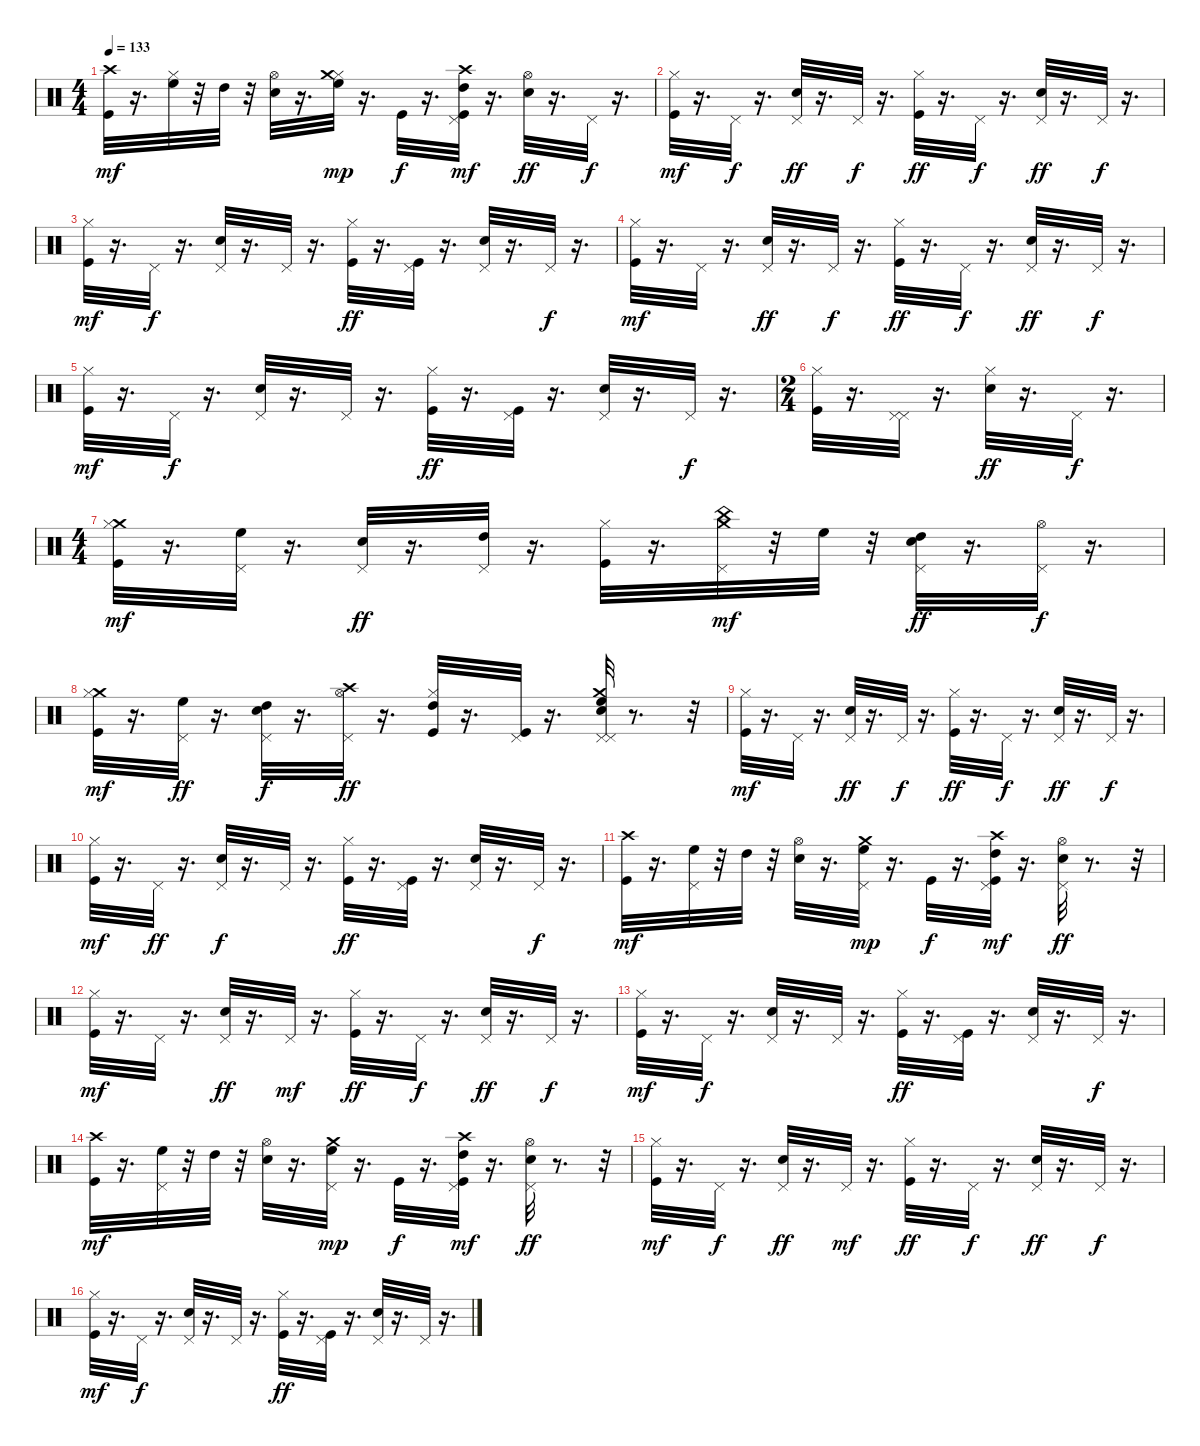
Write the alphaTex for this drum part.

\track "" {instrument percussion}
\staff {score}
\articulation defaults
\ts (4 4)
\tempo 133
\clef neutral
\ks c
("Crash high (hit)" "Kick (hit)").32{dy mf} r.16{d} ("Hi-Hat (closed)" "High Floor Tom (hit)").32 r.32 "High Tom (hit)".32 r.32 ("Hi-Hat (open)" "Snare (hit) 2").32 r.16{d} ("Hi-Hat (closed)" "Crash medium (hit)" "High Floor Tom (hit)").32{dy mp} r.16{d} "Kick (hit)".32{dy f} r.16{d} ("Pedal Hi-Hat (hit)" "Crash high (hit)" "High Tom (hit)" "Kick (hit)").32{dy mf} r.16{d} ("Hi-Hat (open)" "Snare (hit) 2").32{dy ff} r.16{d} "Pedal Hi-Hat (hit)".32{dy f} r.16{d} |
("Hi-Hat (closed)" "Kick (hit)").32{dy mf} r.16{d} "Pedal Hi-Hat (hit)".32{dy f} r.16{d} ("Pedal Hi-Hat (hit)" "Snare (hit) 2").32{dy ff} r.16{d} "Pedal Hi-Hat (hit)".32{dy f} r.16{d} ("Hi-Hat (closed)" "Kick (hit)").32{dy ff} r.16{d} "Pedal Hi-Hat (hit)".32{dy f} r.16{d} ("Pedal Hi-Hat (hit)" "Snare (hit) 2").32{dy ff} r.16{d} "Pedal Hi-Hat (hit)".32{dy f} r.16{d} |
("Hi-Hat (closed)" "Kick (hit)").32{dy mf} r.16{d} "Pedal Hi-Hat (hit)".32{dy f} r.16{d} ("Pedal Hi-Hat (hit)" "Snare (hit) 2").32 r.16{d} "Pedal Hi-Hat (hit)".32 r.16{d} ("Hi-Hat (closed)" "Kick (hit)").32{dy ff} r.16{d} ("Pedal Hi-Hat (hit)" "Kick (hit)").32 r.16{d} ("Pedal Hi-Hat (hit)" "Snare (hit) 2").32 r.16{d} "Pedal Hi-Hat (hit)".32{dy f} r.16{d} |
("Hi-Hat (closed)" "Kick (hit)").32{dy mf} r.16{d} "Pedal Hi-Hat (hit)".32 r.16{d} ("Pedal Hi-Hat (hit)" "Snare (hit) 2").32{dy ff} r.16{d} "Pedal Hi-Hat (hit)".32{dy f} r.16{d} ("Hi-Hat (closed)" "Kick (hit)").32{dy ff} r.16{d} "Pedal Hi-Hat (hit)".32{dy f} r.16{d} ("Pedal Hi-Hat (hit)" "Snare (hit) 2").32{dy ff} r.16{d} "Pedal Hi-Hat (hit)".32{dy f} r.16{d} |
("Hi-Hat (closed)" "Kick (hit)").32{dy mf} r.16{d} "Pedal Hi-Hat (hit)".32{dy f} r.16{d} ("Pedal Hi-Hat (hit)" "Snare (hit) 2").32 r.16{d} "Pedal Hi-Hat (hit)".32 r.16{d} ("Hi-Hat (closed)" "Kick (hit)").32{dy ff} r.16{d} ("Pedal Hi-Hat (hit)" "Kick (hit)").32 r.16{d} ("Pedal Hi-Hat (hit)" "Snare (hit) 2").32 r.16{d} "Pedal Hi-Hat (hit)".32{dy f} r.16{d} |
\ts (2 4)
("Hi-Hat (closed)" "Kick (hit)").32 r.16{d} ("Pedal Hi-Hat (hit)" "Pedal Hi-Hat (hit)").32 r.16{d} ("Hi-Hat (closed)" "Snare (hit) 2").32{dy ff} r.16{d} "Pedal Hi-Hat (hit)".32{dy f} r.16{d} |
\ts (4 4)
("Crash medium (hit)" "Hi-Hat (closed)" "Kick (hit)").32{dy mf} r.16{d} ("Pedal Hi-Hat (hit)" "High Floor Tom (hit)").32 r.16{d} ("Pedal Hi-Hat (hit)" "Snare (hit) 2").32{dy ff} r.16{d} ("Pedal Hi-Hat (hit)" "High Tom (hit)").32 r.16{d} ("Hi-Hat (closed)" "Kick (hit)").32 r.16{d} ("Pedal Hi-Hat (hit)" "Crash medium (hit)" "China (hit)").32{dy mf} r.32 "High Floor Tom (hit)".32 r.32 ("High Tom (hit)" "Pedal Hi-Hat (hit)" "Snare (hit) 2").32{dy ff} r.16{d} ("Pedal Hi-Hat (hit)" "Hi-Hat (open)").32{dy f} r.16{d} |
("Crash medium (hit)" "Hi-Hat (closed)" "Kick (hit)").32{dy mf} r.16{d} ("Pedal Hi-Hat (hit)" "High Floor Tom (hit)").32{dy ff} r.16{d} ("High Tom (hit)" "Pedal Hi-Hat (hit)" "Snare (hit) 2").32{dy f} r.16{d} ("Pedal Hi-Hat (hit)" "Crash high (hit)" "Hi-Hat (open)").32{dy ff} r.16{d} ("High Tom (hit)" "Hi-Hat (closed)" "Kick (hit)").32 r.16{d} ("Pedal Hi-Hat (hit)" "Kick (hit)").32 r.16{d} ("Pedal Hi-Hat (hit)" "Crash medium (hit)" "High Floor Tom (hit)" "Pedal Hi-Hat (hit)" "Snare (hit) 2").32 r.8{d} r.32 |
("Hi-Hat (closed)" "Kick (hit)").32{dy mf} r.16{d} "Pedal Hi-Hat (hit)".32 r.16{d} ("Pedal Hi-Hat (hit)" "Snare (hit) 2").32{dy ff} r.16{d} "Pedal Hi-Hat (hit)".32{dy f} r.16{d} ("Hi-Hat (closed)" "Kick (hit)").32{dy ff} r.16{d} "Pedal Hi-Hat (hit)".32{dy f} r.16{d} ("Pedal Hi-Hat (hit)" "Snare (hit) 2").32{dy ff} r.16{d} "Pedal Hi-Hat (hit)".32{dy f} r.16{d} |
("Hi-Hat (closed)" "Kick (hit)").32{dy mf} r.16{d} "Pedal Hi-Hat (hit)".32{dy ff} r.16{d} ("Pedal Hi-Hat (hit)" "Snare (hit) 2").32{dy f} r.16{d} "Pedal Hi-Hat (hit)".32 r.16{d} ("Hi-Hat (closed)" "Kick (hit)").32{dy ff} r.16{d} ("Pedal Hi-Hat (hit)" "Kick (hit)").32 r.16{d} ("Pedal Hi-Hat (hit)" "Snare (hit) 2").32 r.16{d} "Pedal Hi-Hat (hit)".32{dy f} r.16{d} |
("Crash high (hit)" "Kick (hit)").32{dy mf} r.16{d} ("Pedal Hi-Hat (hit)" "High Floor Tom (hit)").32 r.32 "High Tom (hit)".32 r.32 ("Hi-Hat (open)" "Snare (hit) 2").32 r.16{d} ("Pedal Hi-Hat (hit)" "Crash medium (hit)" "High Floor Tom (hit)").32{dy mp} r.16{d} "Kick (hit)".32{dy f} r.16{d} ("Pedal Hi-Hat (hit)" "Crash high (hit)" "High Tom (hit)" "Kick (hit)").32{dy mf} r.16{d} ("Pedal Hi-Hat (hit)" "Hi-Hat (open)" "Snare (hit) 2").32{dy ff} r.8{d} r.32 |
("Hi-Hat (closed)" "Kick (hit)").32{dy mf} r.16{d} "Pedal Hi-Hat (hit)".32 r.16{d} ("Pedal Hi-Hat (hit)" "Snare (hit) 2").32{dy ff} r.16{d} "Pedal Hi-Hat (hit)".32{dy mf} r.16{d} ("Hi-Hat (closed)" "Kick (hit)").32{dy ff} r.16{d} "Pedal Hi-Hat (hit)".32{dy f} r.16{d} ("Pedal Hi-Hat (hit)" "Snare (hit) 2").32{dy ff} r.16{d} "Pedal Hi-Hat (hit)".32{dy f} r.16{d} |
("Hi-Hat (closed)" "Kick (hit)").32{dy mf} r.16{d} "Pedal Hi-Hat (hit)".32{dy f} r.16{d} ("Pedal Hi-Hat (hit)" "Snare (hit) 2").32 r.16{d} "Pedal Hi-Hat (hit)".32 r.16{d} ("Hi-Hat (closed)" "Kick (hit)").32{dy ff} r.16{d} ("Pedal Hi-Hat (hit)" "Kick (hit)").32 r.16{d} ("Pedal Hi-Hat (hit)" "Snare (hit) 2").32 r.16{d} "Pedal Hi-Hat (hit)".32{dy f} r.16{d} |
("Crash high (hit)" "Kick (hit)").32{dy mf} r.16{d} ("Pedal Hi-Hat (hit)" "High Floor Tom (hit)").32 r.32 "High Tom (hit)".32 r.32 ("Hi-Hat (open)" "Snare (hit) 2").32 r.16{d} ("Pedal Hi-Hat (hit)" "Crash medium (hit)" "High Floor Tom (hit)").32{dy mp} r.16{d} "Kick (hit)".32{dy f} r.16{d} ("Pedal Hi-Hat (hit)" "Crash high (hit)" "High Tom (hit)" "Kick (hit)").32{dy mf} r.16{d} ("Pedal Hi-Hat (hit)" "Hi-Hat (open)" "Snare (hit) 2").32{dy ff} r.8{d} r.32 |
("Hi-Hat (closed)" "Kick (hit)").32{dy mf} r.16{d} "Pedal Hi-Hat (hit)".32{dy f} r.16{d} ("Pedal Hi-Hat (hit)" "Snare (hit) 2").32{dy ff} r.16{d} "Pedal Hi-Hat (hit)".32{dy mf} r.16{d} ("Hi-Hat (closed)" "Kick (hit)").32{dy ff} r.16{d} "Pedal Hi-Hat (hit)".32{dy f} r.16{d} ("Pedal Hi-Hat (hit)" "Snare (hit) 2").32{dy ff} r.16{d} "Pedal Hi-Hat (hit)".32{dy f} r.16{d} |
("Hi-Hat (closed)" "Kick (hit)").32{dy mf} r.16{d} "Pedal Hi-Hat (hit)".32{dy f} r.16{d} ("Pedal Hi-Hat (hit)" "Snare (hit) 2").32 r.16{d} "Pedal Hi-Hat (hit)".32 r.16{d} ("Hi-Hat (closed)" "Kick (hit)").32{dy ff} r.16{d} ("Pedal Hi-Hat (hit)" "Kick (hit)").32 r.16{d} ("Pedal Hi-Hat (hit)" "Snare (hit) 2").32 r.16{d} "Pedal Hi-Hat (hit)".32 r.16{d}
